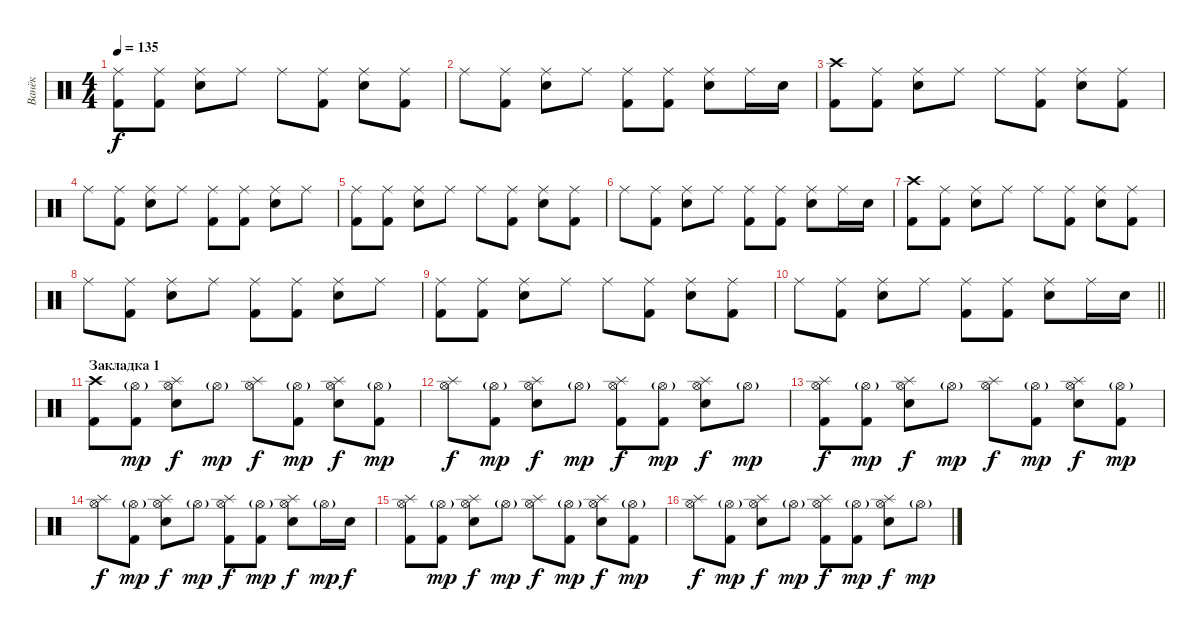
\track ("Ванёк" "Ванёк") {instrument percussion}
\staff {score}
\articulation defaults
\ts (4 4)
\tempo 135
\clef neutral
\ks c
("Ride (middle)" "Kick (hit) 2").8{dy f} ("Ride (middle)" "Kick (hit) 2").8 ("Ride (middle)" "Snare (hit) 2").8 "Ride (middle)".8 "Ride (middle)".8 ("Ride (middle)" "Kick (hit) 2").8 ("Ride (middle)" "Snare (hit) 2").8 ("Ride (middle)" "Kick (hit) 2").8 |
"Ride (middle)".8 ("Ride (middle)" "Kick (hit) 2").8 ("Ride (middle)" "Snare (hit) 2").8 "Ride (middle)".8 ("Ride (middle)" "Kick (hit) 2").8 ("Ride (middle)" "Kick (hit) 2").8 ("Ride (middle)" "Snare (hit) 2").8 "Ride (middle)".16 "Snare (hit) 2".16 |
("Crash high (hit)" "Kick (hit) 2").8 ("Ride (middle)" "Kick (hit) 2").8 ("Ride (middle)" "Snare (hit) 2").8 "Ride (middle)".8 "Ride (middle)".8 ("Ride (middle)" "Kick (hit) 2").8 ("Ride (middle)" "Snare (hit) 2").8 ("Ride (middle)" "Kick (hit) 2").8 |
"Ride (middle)".8 ("Ride (middle)" "Kick (hit) 2").8 ("Ride (middle)" "Snare (hit) 2").8 "Ride (middle)".8 ("Ride (middle)" "Kick (hit) 2").8 ("Ride (middle)" "Kick (hit) 2").8 ("Ride (middle)" "Snare (hit) 2").8 "Ride (middle)".8 |
("Ride (middle)" "Kick (hit) 2").8 ("Ride (middle)" "Kick (hit) 2").8 ("Ride (middle)" "Snare (hit) 2").8 "Ride (middle)".8 "Ride (middle)".8 ("Ride (middle)" "Kick (hit) 2").8 ("Ride (middle)" "Snare (hit) 2").8 ("Ride (middle)" "Kick (hit) 2").8 |
"Ride (middle)".8 ("Ride (middle)" "Kick (hit) 2").8 ("Ride (middle)" "Snare (hit) 2").8 "Ride (middle)".8 ("Ride (middle)" "Kick (hit) 2").8 ("Ride (middle)" "Kick (hit) 2").8 ("Ride (middle)" "Snare (hit) 2").8 "Ride (middle)".16 "Snare (hit) 2".16 |
("Crash high (hit)" "Kick (hit) 2").8 ("Ride (middle)" "Kick (hit) 2").8 ("Ride (middle)" "Snare (hit) 2").8 "Ride (middle)".8 "Ride (middle)".8 ("Ride (middle)" "Kick (hit) 2").8 ("Ride (middle)" "Snare (hit) 2").8 ("Ride (middle)" "Kick (hit) 2").8 |
"Ride (middle)".8 ("Ride (middle)" "Kick (hit) 2").8 ("Ride (middle)" "Snare (hit) 2").8 "Ride (middle)".8 ("Ride (middle)" "Kick (hit) 2").8 ("Ride (middle)" "Kick (hit) 2").8 ("Ride (middle)" "Snare (hit) 2").8 "Ride (middle)".8 |
("Ride (middle)" "Kick (hit) 2").8 ("Ride (middle)" "Kick (hit) 2").8 ("Ride (middle)" "Snare (hit) 2").8 "Ride (middle)".8 "Ride (middle)".8 ("Ride (middle)" "Kick (hit) 2").8 ("Ride (middle)" "Snare (hit) 2").8 ("Ride (middle)" "Kick (hit) 2").8 |
\barLineRight lightlight "Ride (middle)".8
("Ride (middle)" "Kick (hit) 2").8 ("Ride (middle)" "Snare (hit) 2").8 "Ride (middle)".8 ("Ride (middle)" "Kick (hit) 2").8 ("Ride (middle)" "Kick (hit) 2").8 ("Ride (middle)" "Snare (hit) 2").8 "Ride (middle)".16 "Snare (hit) 2".16 |
\section ("" "Закладка 1")
("Crash high (hit)" "Kick (hit) 2").8 ("Hi-Hat (open)"{g} "Kick (hit) 2").8{dy mp} ("Hi-Hat (open)" "Splash (hit)" "Snare (hit) 2").8{dy f} "Hi-Hat (open)"{g}.8{dy mp} ("Hi-Hat (open)" "Splash (hit)").8{dy f} ("Hi-Hat (open)"{g} "Kick (hit) 2").8{dy mp} ("Hi-Hat (open)" "Splash (hit)" "Snare (hit) 2").8{dy f} ("Hi-Hat (open)"{g} "Kick (hit) 2").8{dy mp} |
("Hi-Hat (open)" "Splash (hit)").8{dy f} ("Hi-Hat (open)"{g} "Kick (hit) 2").8{dy mp} ("Hi-Hat (open)" "Splash (hit)" "Snare (hit) 2").8{dy f} "Hi-Hat (open)"{g}.8{dy mp} ("Hi-Hat (open)" "Splash (hit)" "Kick (hit) 2").8{dy f} ("Hi-Hat (open)"{g} "Kick (hit) 2").8{dy mp} ("Hi-Hat (open)" "Splash (hit)" "Snare (hit) 2").8{dy f} "Hi-Hat (open)"{g}.8{dy mp} |
("Hi-Hat (open)" "Splash (hit)" "Kick (hit) 2").8{dy f} ("Hi-Hat (open)"{g} "Kick (hit) 2").8{dy mp} ("Hi-Hat (open)" "Splash (hit)" "Snare (hit) 2").8{dy f} "Hi-Hat (open)"{g}.8{dy mp} ("Hi-Hat (open)" "Splash (hit)").8{dy f} ("Hi-Hat (open)"{g} "Kick (hit) 2").8{dy mp} ("Hi-Hat (open)" "Splash (hit)" "Snare (hit) 2").8{dy f} ("Hi-Hat (open)"{g} "Kick (hit) 2").8{dy mp} |
("Hi-Hat (open)" "Splash (hit)").8{dy f} ("Hi-Hat (open)"{g} "Kick (hit) 2").8{dy mp} ("Hi-Hat (open)" "Splash (hit)" "Snare (hit) 2").8{dy f} "Hi-Hat (open)"{g}.8{dy mp} ("Hi-Hat (open)" "Splash (hit)" "Kick (hit) 2").8{dy f} ("Hi-Hat (open)"{g} "Kick (hit) 2").8{dy mp} ("Hi-Hat (open)" "Splash (hit)" "Snare (hit) 2").8{dy f} "Hi-Hat (open)"{g}.16{dy mp} "Snare (hit) 2".16{dy f} |
("Hi-Hat (open)" "Splash (hit)" "Kick (hit) 2").8 ("Hi-Hat (open)"{g} "Kick (hit) 2").8{dy mp} ("Hi-Hat (open)" "Splash (hit)" "Snare (hit) 2").8{dy f} "Hi-Hat (open)"{g}.8{dy mp} ("Hi-Hat (open)" "Splash (hit)").8{dy f} ("Hi-Hat (open)"{g} "Kick (hit) 2").8{dy mp} ("Hi-Hat (open)" "Splash (hit)" "Snare (hit) 2").8{dy f} ("Hi-Hat (open)"{g} "Kick (hit) 2").8{dy mp} |
("Hi-Hat (open)" "Splash (hit)").8{dy f} ("Hi-Hat (open)"{g} "Kick (hit) 2").8{dy mp} ("Hi-Hat (open)" "Splash (hit)" "Snare (hit) 2").8{dy f} "Hi-Hat (open)"{g}.8{dy mp} ("Hi-Hat (open)" "Splash (hit)" "Kick (hit) 2").8{dy f} ("Hi-Hat (open)"{g} "Kick (hit) 2").8{dy mp} ("Hi-Hat (open)" "Splash (hit)" "Snare (hit) 2").8{dy f} "Hi-Hat (open)"{g}.8{dy mp}
